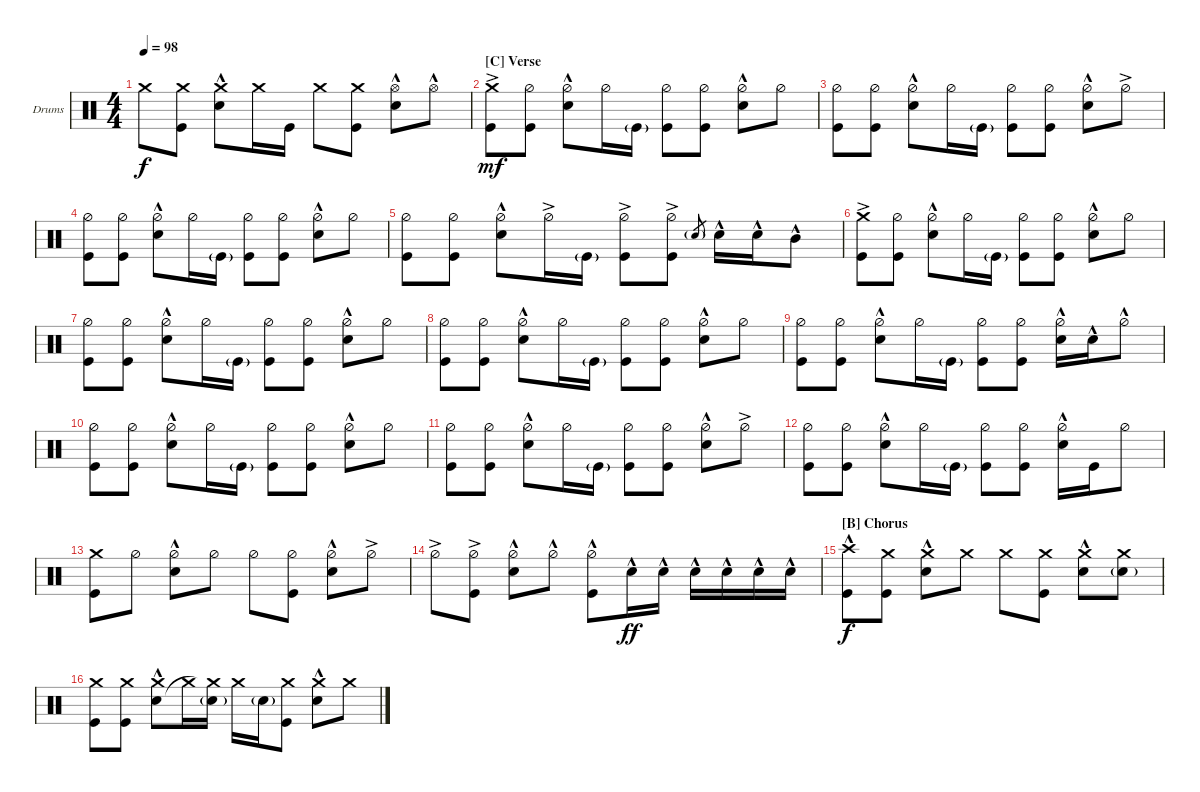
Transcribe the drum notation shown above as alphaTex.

\defaultSystemsLayout 4
\bracketExtendMode groupsimilarinstruments
\firstSystemTrackNameOrientation horizontal
\otherSystemsTrackNameOrientation horizontal
\track ("Drumkit (Chad Smith)" "Drums") {instrument percussion}
\staff {score}
\articulation defaults
\ts (4 4)
\tempo 98
\clef neutral
\scale
0.333333
\ks c "Crash medium (hit)".8{dy f}
("Crash medium (hit)" "Kick (hit)").8 ("Crash medium (hit)" "Snare (hit) 2"{hac}).8 "Crash medium (hit)".16 "Kick (hit)".16 "Crash medium (hit)".8 ("Crash medium (hit)" "Kick (hit)").8 ("Snare (hit) 2"{hac} "Hi-Hat (open)"{hac}).8 "Hi-Hat (open)"{hac}.8 |
\section ("C" "Verse")
\scale
0.333333 ("Kick (hit)" "Crash medium (hit)"{ac}).8{dy mf} ("Kick (hit)" "Hi-Hat (half)").8 ("Snare (hit) 2"{hac} "Hi-Hat (half)").8 "Hi-Hat (half)".16 "Kick (hit)"{g}.16 ("Kick (hit)" "Hi-Hat (half)").8 ("Kick (hit)" "Hi-Hat (half)").8 ("Snare (hit) 2"{hac} "Hi-Hat (half)").8 "Hi-Hat (half)".8 |
\scale
0.333333 ("Kick (hit)" "Hi-Hat (half)").8 ("Kick (hit)" "Hi-Hat (half)").8 ("Snare (hit) 2"{hac} "Hi-Hat (half)").8 "Hi-Hat (half)".16 "Kick (hit)"{g}.16 ("Kick (hit)" "Hi-Hat (half)").8 ("Kick (hit)" "Hi-Hat (half)").8 ("Snare (hit) 2"{hac} "Hi-Hat (half)").8 "Hi-Hat (half)"{ac}.8 |
\scale
0.333333 ("Kick (hit)" "Hi-Hat (half)").8 ("Kick (hit)" "Hi-Hat (half)").8 ("Snare (hit) 2"{hac} "Hi-Hat (half)").8 "Hi-Hat (half)".16 "Kick (hit)"{g}.16 ("Kick (hit)" "Hi-Hat (half)").8 ("Kick (hit)" "Hi-Hat (half)").8 ("Snare (hit) 2"{hac} "Hi-Hat (half)").8 "Hi-Hat (half)".8 |
\scale
0.333333 ("Kick (hit)" "Hi-Hat (half)").8 ("Kick (hit)" "Hi-Hat (half)").8 ("Snare (hit) 2"{hac} "Hi-Hat (half)").8 "Hi-Hat (half)"{ac}.16 "Kick (hit)"{g}.16 ("Kick (hit)" "Hi-Hat (half)"{ac}).8 ("Kick (hit)" "Hi-Hat (half)"{ac}).8 "Snare (hit) 2"{g}.8{gr} "Snare (hit) 2"{hac}.16 "Snare (hit) 2"{hac}.16 "Mid Tom (hit)"{hac}.8 |
\scale
0.333333 ("Kick (hit)" "Crash medium (hit)"{ac}).8 ("Kick (hit)" "Hi-Hat (half)").8 ("Snare (hit) 2"{hac} "Hi-Hat (half)").8 "Hi-Hat (half)".16 "Kick (hit)"{g}.16 ("Kick (hit)" "Hi-Hat (half)").8 ("Kick (hit)" "Hi-Hat (half)").8 ("Snare (hit) 2"{hac} "Hi-Hat (half)").8 "Hi-Hat (half)".8 |
\scale
0.333333 ("Kick (hit)" "Hi-Hat (half)").8 ("Kick (hit)" "Hi-Hat (half)").8 ("Snare (hit) 2"{hac} "Hi-Hat (half)").8 "Hi-Hat (half)".16 "Kick (hit)"{g}.16 ("Kick (hit)" "Hi-Hat (half)").8 ("Kick (hit)" "Hi-Hat (half)").8 ("Snare (hit) 2"{hac} "Hi-Hat (half)").8 "Hi-Hat (half)".8 |
\scale
0.333333 ("Kick (hit)" "Hi-Hat (half)").8 ("Kick (hit)" "Hi-Hat (half)").8 ("Snare (hit) 2"{hac} "Hi-Hat (half)").8 "Hi-Hat (half)".16 "Kick (hit)"{g}.16 ("Kick (hit)" "Hi-Hat (half)").8 ("Kick (hit)" "Hi-Hat (half)").8 ("Snare (hit) 2"{hac} "Hi-Hat (half)").8 "Hi-Hat (half)".8 |
\scale
0.333333 ("Kick (hit)" "Hi-Hat (half)").8 ("Kick (hit)" "Hi-Hat (half)").8 ("Snare (hit) 2"{hac} "Hi-Hat (half)").8 "Hi-Hat (half)".16 "Kick (hit)"{g}.16 ("Kick (hit)" "Hi-Hat (half)").8 ("Kick (hit)" "Hi-Hat (half)").8 ("Snare (hit) 2"{hac} "Hi-Hat (half)").16 "Snare (hit) 2"{hac}.16 "Hi-Hat (half)"{hac}.8 |
\scale
0.333333 ("Kick (hit)" "Hi-Hat (half)").8 ("Kick (hit)" "Hi-Hat (half)").8 ("Snare (hit) 2"{hac} "Hi-Hat (half)").8 "Hi-Hat (half)".16 "Kick (hit)"{g}.16 ("Kick (hit)" "Hi-Hat (half)").8 ("Kick (hit)" "Hi-Hat (half)").8 ("Snare (hit) 2"{hac} "Hi-Hat (half)").8 "Hi-Hat (half)".8 |
\scale
0.333333 ("Kick (hit)" "Hi-Hat (half)").8 ("Kick (hit)" "Hi-Hat (half)").8 ("Snare (hit) 2"{hac} "Hi-Hat (half)").8 "Hi-Hat (half)".16 "Kick (hit)"{g}.16 ("Kick (hit)" "Hi-Hat (half)").8 ("Kick (hit)" "Hi-Hat (half)").8 ("Snare (hit) 2"{hac} "Hi-Hat (half)").8 "Hi-Hat (half)"{ac}.8 |
\scale
0.333333 ("Kick (hit)" "Hi-Hat (half)").8 ("Kick (hit)" "Hi-Hat (half)").8 ("Snare (hit) 2"{hac} "Hi-Hat (half)").8 "Hi-Hat (half)".16 "Kick (hit)"{g}.16 ("Kick (hit)" "Hi-Hat (half)").8 ("Kick (hit)" "Hi-Hat (half)").8 ("Snare (hit) 2"{hac} "Hi-Hat (half)").16 "Kick (hit)".16 "Hi-Hat (half)".8 |
\scale
0.333333 ("Kick (hit)" "Crash medium (hit)").8 "Hi-Hat (half)".8 ("Snare (hit) 2"{hac} "Hi-Hat (half)").8 "Hi-Hat (half)".8 "Hi-Hat (half)".8 ("Kick (hit)" "Hi-Hat (half)").8 ("Snare (hit) 2"{hac} "Hi-Hat (half)").8 "Hi-Hat (half)"{ac}.8 |
\scale
0.333333 "Hi-Hat (half)"{ac}.8 ("Hi-Hat (half)"{ac} "Kick (hit)").8 ("Snare (hit) 2"{hac} "Hi-Hat (half)"{hac}).8 "Hi-Hat (half)"{hac}.8 ("Hi-Hat (half)" "Kick (hit)"{hac}).8 "Snare (hit) 2"{hac}.16{dy ff} "Snare (hit) 2"{hac}.16 "Snare (hit) 2"{hac}.16 "Snare (hit) 2"{hac}.16 "Snare (hit) 2"{hac}.16 "Snare (hit) 2"{hac}.16 |
\section ("B" "Chorus")
\scale
0.333333 ("Kick (hit)" "Crash high (hit)"{hac}).8{dy f} ("Crash medium (hit)" "Kick (hit)").8 ("Crash medium (hit)" "Snare (hit) 2"{hac}).8 "Crash medium (hit)".8 "Crash medium (hit)".8 ("Crash medium (hit)" "Kick (hit)").8 ("Crash medium (hit)" "Snare (hit) 2"{hac}).8 ("Crash medium (hit)" "Snare (hit) 2"{g}).8 |
\scale
0.333333 ("Crash medium (hit)" "Kick (hit)").8 ("Crash medium (hit)" "Kick (hit)").8 ("Crash medium (hit)" "Snare (hit) 2"{hac}).8 "Crash medium (hit)".16 ("Snare (hit) 2"{g} "Crash medium (hit)"{t}).16 "Crash medium (hit)".16 "Snare (hit) 2"{g}.16 ("Crash medium (hit)" "Kick (hit)").8 ("Crash medium (hit)" "Snare (hit) 2"{hac}).8 "Crash medium (hit)".8
